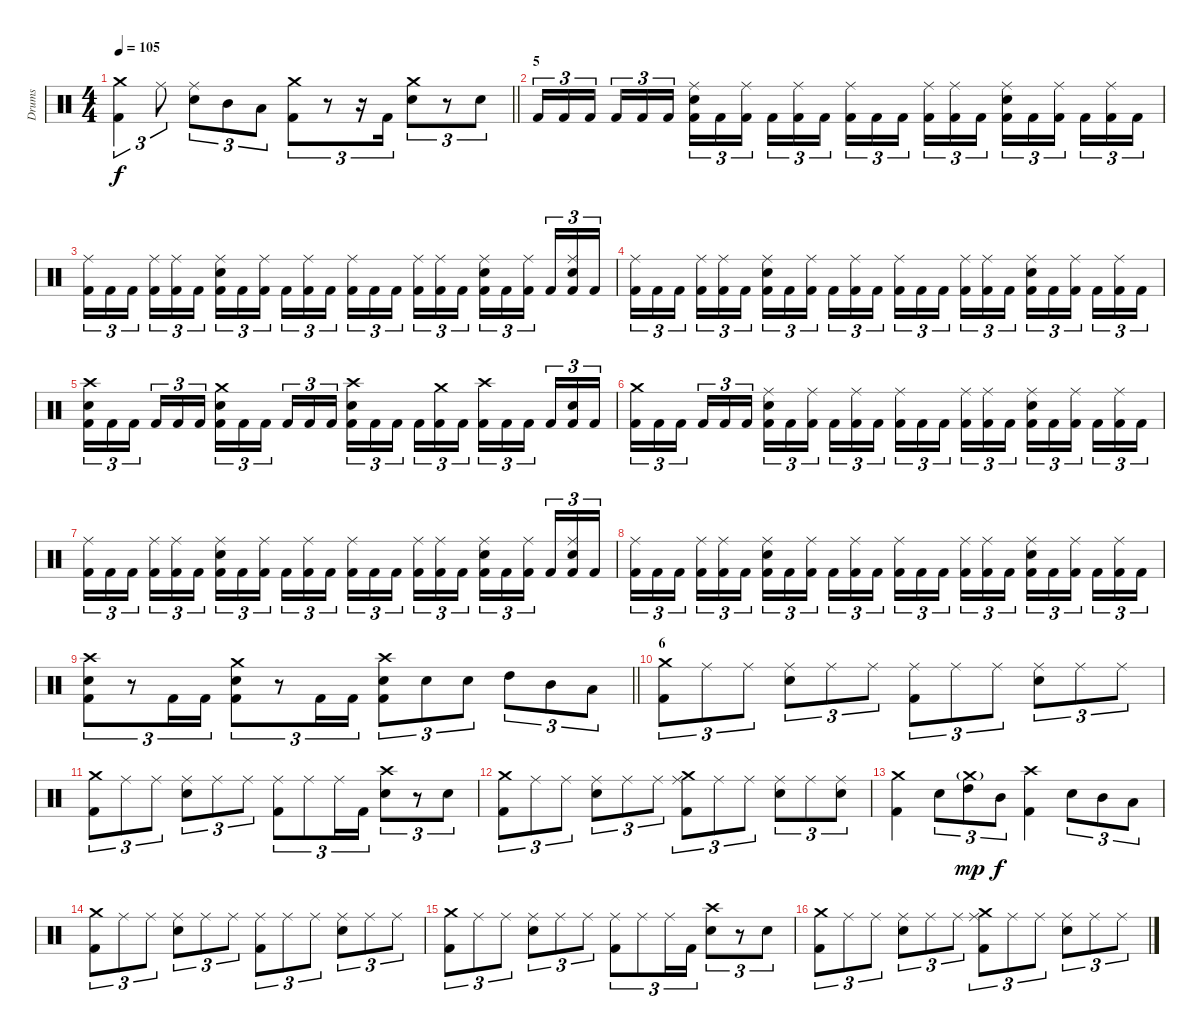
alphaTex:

\track ("Drums" "Drums") {instrument percussion}
\staff {score}
\articulation defaults
\ts (4 4)
\tempo 105
\clef neutral
\barLineRight lightlight
\ks c
("Crash medium (hit)" "Kick (hit) 2").4{tu (3 2) dy f} "Ride (middle)".8{tu (3 2)} ("Ride (middle)" "Electric Snare (hit)").8{tu (3 2)} "Mid Tom (hit)".8{tu (3 2)} "Low Tom (hit)".8{tu (3 2)} ("Crash medium (hit)" "Kick (hit) 2").8{tu (3 2)} r.8{tu (3 2)} r.16{tu (3 2)} "Kick (hit) 2".16{tu (3 2)} ("Crash medium (hit)" "Electric Snare (hit)").8{tu (3 2)} r.8{tu (3 2)} "Electric Snare (hit)".8{tu (3 2)} |
\section ("" "5")
"Kick (hit) 2".16{tu (3 2)} "Kick (hit) 2".16{tu (3 2)} "Kick (hit) 2".16{tu (3 2) beam splitsecondary} "Kick (hit) 2".16{tu (3 2)} "Kick (hit) 2".16{tu (3 2)} "Kick (hit) 2".16{tu (3 2)} ("Ride (middle)" "Electric Snare (hit)" "Kick (hit) 2").16{tu (3 2)} "Kick (hit) 2".16{tu (3 2)} ("Ride (middle)" "Kick (hit) 2").16{tu (3 2) beam splitsecondary} "Kick (hit) 2".16{tu (3 2)} ("Ride (middle)" "Kick (hit) 2").16{tu (3 2)} "Kick (hit) 2".16{tu (3 2)} ("Ride (middle)" "Kick (hit) 2").16{tu (3 2)} "Kick (hit) 2".16{tu (3 2)} "Kick (hit) 2".16{tu (3 2) beam splitsecondary} ("Ride (middle)" "Kick (hit) 2").16{tu (3 2)} ("Ride (middle)" "Kick (hit) 2").16{tu (3 2)} "Kick (hit) 2".16{tu (3 2)} ("Ride (middle)" "Electric Snare (hit)" "Kick (hit) 2").16{tu (3 2)} "Kick (hit) 2".16{tu (3 2)} ("Ride (middle)" "Kick (hit) 2").16{tu (3 2) beam splitsecondary} "Kick (hit) 2".16{tu (3 2)} ("Ride (middle)" "Kick (hit) 2").16{tu (3 2)} "Kick (hit) 2".16{tu (3 2)} |
("Ride (middle)" "Kick (hit) 2").16{tu (3 2)} "Kick (hit) 2".16{tu (3 2)} "Kick (hit) 2".16{tu (3 2) beam splitsecondary} ("Ride (middle)" "Kick (hit) 2").16{tu (3 2)} ("Ride (middle)" "Kick (hit) 2").16{tu (3 2)} "Kick (hit) 2".16{tu (3 2)} ("Ride (middle)" "Electric Snare (hit)" "Kick (hit) 2").16{tu (3 2)} "Kick (hit) 2".16{tu (3 2)} ("Ride (middle)" "Kick (hit) 2").16{tu (3 2) beam splitsecondary} "Kick (hit) 2".16{tu (3 2)} ("Ride (middle)" "Kick (hit) 2").16{tu (3 2)} "Kick (hit) 2".16{tu (3 2)} ("Ride (middle)" "Kick (hit) 2").16{tu (3 2)} "Kick (hit) 2".16{tu (3 2)} "Kick (hit) 2".16{tu (3 2) beam splitsecondary} ("Ride (middle)" "Kick (hit) 2").16{tu (3 2)} ("Ride (middle)" "Kick (hit) 2").16{tu (3 2)} "Kick (hit) 2".16{tu (3 2)} ("Ride (middle)" "Electric Snare (hit)" "Kick (hit) 2").16{tu (3 2)} "Kick (hit) 2".16{tu (3 2)} ("Ride (middle)" "Kick (hit) 2").16{tu (3 2) beam splitsecondary} "Kick (hit) 2".16{tu (3 2)} ("Ride (middle)" "Electric Snare (hit)" "Kick (hit) 2").16{tu (3 2)} "Kick (hit) 2".16{tu (3 2)} |
("Ride (middle)" "Kick (hit) 2").16{tu (3 2)} "Kick (hit) 2".16{tu (3 2)} "Kick (hit) 2".16{tu (3 2) beam splitsecondary} ("Ride (middle)" "Kick (hit) 2").16{tu (3 2)} ("Ride (middle)" "Kick (hit) 2").16{tu (3 2)} "Kick (hit) 2".16{tu (3 2)} ("Ride (middle)" "Electric Snare (hit)" "Kick (hit) 2").16{tu (3 2)} "Kick (hit) 2".16{tu (3 2)} ("Ride (middle)" "Kick (hit) 2").16{tu (3 2) beam splitsecondary} "Kick (hit) 2".16{tu (3 2)} ("Ride (middle)" "Kick (hit) 2").16{tu (3 2)} "Kick (hit) 2".16{tu (3 2)} ("Ride (middle)" "Kick (hit) 2").16{tu (3 2)} "Kick (hit) 2".16{tu (3 2)} "Kick (hit) 2".16{tu (3 2) beam splitsecondary} ("Ride (middle)" "Kick (hit) 2").16{tu (3 2)} ("Ride (middle)" "Kick (hit) 2").16{tu (3 2)} "Kick (hit) 2".16{tu (3 2)} ("Ride (middle)" "Electric Snare (hit)" "Kick (hit) 2").16{tu (3 2)} "Kick (hit) 2".16{tu (3 2)} ("Ride (middle)" "Kick (hit) 2").16{tu (3 2) beam splitsecondary} "Kick (hit) 2".16{tu (3 2)} ("Ride (middle)" "Kick (hit) 2").16{tu (3 2)} "Kick (hit) 2".16{tu (3 2)} |
("Crash high (hit)" "Electric Snare (hit)" "Kick (hit) 2").16{tu (3 2)} "Kick (hit) 2".16{tu (3 2)} "Kick (hit) 2".16{tu (3 2) beam splitsecondary} "Kick (hit) 2".16{tu (3 2)} "Kick (hit) 2".16{tu (3 2)} "Kick (hit) 2".16{tu (3 2)} ("Crash medium (hit)" "Electric Snare (hit)" "Kick (hit) 2").16{tu (3 2)} "Kick (hit) 2".16{tu (3 2)} "Kick (hit) 2".16{tu (3 2) beam splitsecondary} "Kick (hit) 2".16{tu (3 2)} "Kick (hit) 2".16{tu (3 2)} "Kick (hit) 2".16{tu (3 2)} ("Crash high (hit)" "Electric Snare (hit)" "Kick (hit) 2").16{tu (3 2)} "Kick (hit) 2".16{tu (3 2)} "Kick (hit) 2".16{tu (3 2) beam splitsecondary} "Kick (hit) 2".16{tu (3 2)} ("Crash medium (hit)" "Kick (hit) 2").16{tu (3 2)} "Kick (hit) 2".16{tu (3 2)} ("Crash high (hit)" "Kick (hit) 2").16{tu (3 2)} "Kick (hit) 2".16{tu (3 2)} "Kick (hit) 2".16{tu (3 2) beam splitsecondary} "Kick (hit) 2".16{tu (3 2)} ("Electric Snare (hit)" "Kick (hit) 2").16{tu (3 2)} "Kick (hit) 2".16{tu (3 2)} |
("Crash medium (hit)" "Kick (hit) 2").16{tu (3 2)} "Kick (hit) 2".16{tu (3 2)} "Kick (hit) 2".16{tu (3 2) beam splitsecondary} "Kick (hit) 2".16{tu (3 2)} "Kick (hit) 2".16{tu (3 2)} "Kick (hit) 2".16{tu (3 2)} ("Ride (middle)" "Electric Snare (hit)" "Kick (hit) 2").16{tu (3 2)} "Kick (hit) 2".16{tu (3 2)} ("Ride (middle)" "Kick (hit) 2").16{tu (3 2) beam splitsecondary} "Kick (hit) 2".16{tu (3 2)} ("Ride (middle)" "Kick (hit) 2").16{tu (3 2)} "Kick (hit) 2".16{tu (3 2)} ("Ride (middle)" "Kick (hit) 2").16{tu (3 2)} "Kick (hit) 2".16{tu (3 2)} "Kick (hit) 2".16{tu (3 2) beam splitsecondary} ("Ride (middle)" "Kick (hit) 2").16{tu (3 2)} ("Ride (middle)" "Kick (hit) 2").16{tu (3 2)} "Kick (hit) 2".16{tu (3 2)} ("Ride (middle)" "Electric Snare (hit)" "Kick (hit) 2").16{tu (3 2)} "Kick (hit) 2".16{tu (3 2)} ("Ride (middle)" "Kick (hit) 2").16{tu (3 2) beam splitsecondary} "Kick (hit) 2".16{tu (3 2)} ("Ride (middle)" "Kick (hit) 2").16{tu (3 2)} "Kick (hit) 2".16{tu (3 2)} |
("Ride (middle)" "Kick (hit) 2").16{tu (3 2)} "Kick (hit) 2".16{tu (3 2)} "Kick (hit) 2".16{tu (3 2) beam splitsecondary} ("Ride (middle)" "Kick (hit) 2").16{tu (3 2)} ("Ride (middle)" "Kick (hit) 2").16{tu (3 2)} "Kick (hit) 2".16{tu (3 2)} ("Ride (middle)" "Electric Snare (hit)" "Kick (hit) 2").16{tu (3 2)} "Kick (hit) 2".16{tu (3 2)} ("Ride (middle)" "Kick (hit) 2").16{tu (3 2) beam splitsecondary} "Kick (hit) 2".16{tu (3 2)} ("Ride (middle)" "Kick (hit) 2").16{tu (3 2)} "Kick (hit) 2".16{tu (3 2)} ("Ride (middle)" "Kick (hit) 2").16{tu (3 2)} "Kick (hit) 2".16{tu (3 2)} "Kick (hit) 2".16{tu (3 2) beam splitsecondary} ("Ride (middle)" "Kick (hit) 2").16{tu (3 2)} ("Ride (middle)" "Kick (hit) 2").16{tu (3 2)} "Kick (hit) 2".16{tu (3 2)} ("Ride (middle)" "Electric Snare (hit)" "Kick (hit) 2").16{tu (3 2)} "Kick (hit) 2".16{tu (3 2)} ("Ride (middle)" "Kick (hit) 2").16{tu (3 2) beam splitsecondary} "Kick (hit) 2".16{tu (3 2)} ("Ride (middle)" "Electric Snare (hit)" "Kick (hit) 2").16{tu (3 2)} "Kick (hit) 2".16{tu (3 2)} |
("Ride (middle)" "Kick (hit) 2").16{tu (3 2)} "Kick (hit) 2".16{tu (3 2)} "Kick (hit) 2".16{tu (3 2) beam splitsecondary} ("Ride (middle)" "Kick (hit) 2").16{tu (3 2)} ("Ride (middle)" "Kick (hit) 2").16{tu (3 2)} "Kick (hit) 2".16{tu (3 2)} ("Ride (middle)" "Electric Snare (hit)" "Kick (hit) 2").16{tu (3 2)} "Kick (hit) 2".16{tu (3 2)} ("Ride (middle)" "Kick (hit) 2").16{tu (3 2) beam splitsecondary} "Kick (hit) 2".16{tu (3 2)} ("Ride (middle)" "Kick (hit) 2").16{tu (3 2)} "Kick (hit) 2".16{tu (3 2)} ("Ride (middle)" "Kick (hit) 2").16{tu (3 2)} "Kick (hit) 2".16{tu (3 2)} "Kick (hit) 2".16{tu (3 2) beam splitsecondary} ("Ride (middle)" "Kick (hit) 2").16{tu (3 2)} ("Ride (middle)" "Kick (hit) 2").16{tu (3 2)} "Kick (hit) 2".16{tu (3 2)} ("Ride (middle)" "Electric Snare (hit)" "Kick (hit) 2").16{tu (3 2)} "Kick (hit) 2".16{tu (3 2)} ("Ride (middle)" "Kick (hit) 2").16{tu (3 2) beam splitsecondary} "Kick (hit) 2".16{tu (3 2)} ("Ride (middle)" "Kick (hit) 2").16{tu (3 2)} "Kick (hit) 2".16{tu (3 2)} |
\barLineRight lightlight
("Crash high (hit)" "Electric Snare (hit)" "Kick (hit) 2").8{tu (3 2)} r.8{tu (3 2)} "Kick (hit) 2".16{tu (3 2)} "Kick (hit) 2".16{tu (3 2)} ("Crash medium (hit)" "Electric Snare (hit)" "Kick (hit) 2").8{tu (3 2)} r.8{tu (3 2)} "Kick (hit) 2".16{tu (3 2)} "Kick (hit) 2".16{tu (3 2)} ("Crash high (hit)" "Electric Snare (hit)" "Kick (hit) 2").8{tu (3 2)} "Electric Snare (hit)".8{tu (3 2)} "Electric Snare (hit)".8{tu (3 2)} "High Tom (hit)".8{tu (3 2)} "Mid Tom (hit)".8{tu (3 2)} "Low Tom (hit)".8{tu (3 2)} |
\section ("" "6")
("Crash medium (hit)" "Kick (hit) 2").8{tu (3 2)} "Ride (middle)".8{tu (3 2)} "Ride (middle)".8{tu (3 2)} ("Ride (middle)" "Electric Snare (hit)").8{tu (3 2)} "Ride (middle)".8{tu (3 2)} "Ride (middle)".8{tu (3 2)} ("Ride (middle)" "Kick (hit) 2").8{tu (3 2)} "Ride (middle)".8{tu (3 2)} "Ride (middle)".8{tu (3 2)} ("Ride (middle)" "Electric Snare (hit)").8{tu (3 2)} "Ride (middle)".8{tu (3 2)} "Ride (middle)".8{tu (3 2)} |
("Crash medium (hit)" "Kick (hit) 2").8{tu (3 2)} "Ride (middle)".8{tu (3 2)} "Ride (middle)".8{tu (3 2)} ("Ride (middle)" "Electric Snare (hit)").8{tu (3 2)} "Ride (middle)".8{tu (3 2)} "Ride (middle)".8{tu (3 2)} ("Ride (middle)" "Kick (hit) 2").8{tu (3 2)} "Ride (middle)".8{tu (3 2)} "Ride (middle)".16{tu (3 2)} "Kick (hit) 2".16{tu (3 2)} ("Crash high (hit)" "Electric Snare (hit)").8{tu (3 2)} r.8{tu (3 2)} "Electric Snare (hit)".8{tu (3 2)} |
("Crash medium (hit)" "Kick (hit) 2").8{tu (3 2)} "Ride (middle)".8{tu (3 2)} "Ride (middle)".8{tu (3 2)} ("Ride (middle)" "Electric Snare (hit)").8{tu (3 2)} "Ride (middle)".8{tu (3 2)} "Ride (middle)".8{tu (3 2)} ("Crash medium (hit)" "Ride (middle)" "Kick (hit) 2").8{tu (3 2)} "Ride (middle)".8{tu (3 2)} "Ride (middle)".8{tu (3 2)} ("Ride (middle)" "Electric Snare (hit)").8{tu (3 2)} "Ride (middle)".8{tu (3 2)} ("Ride (middle)" "Electric Snare (hit)").8{tu (3 2)} |
("Crash medium (hit)" "Kick (hit) 2").4 "Electric Snare (hit)".8{tu (3 2)} ("Crash medium (hit)"{g} "High Tom (hit)").8{tu (3 2) dy mp} "Mid Tom (hit)".8{tu (3 2) dy f} ("Crash high (hit)" "Kick (hit) 2").4 "Electric Snare (hit)".8{tu (3 2)} "Mid Tom (hit)".8{tu (3 2)} "Low Tom (hit)".8{tu (3 2)} |
("Crash medium (hit)" "Kick (hit) 2").8{tu (3 2)} "Ride (middle)".8{tu (3 2)} "Ride (middle)".8{tu (3 2)} ("Ride (middle)" "Electric Snare (hit)").8{tu (3 2)} "Ride (middle)".8{tu (3 2)} "Ride (middle)".8{tu (3 2)} ("Ride (middle)" "Kick (hit) 2").8{tu (3 2)} "Ride (middle)".8{tu (3 2)} "Ride (middle)".8{tu (3 2)} ("Ride (middle)" "Electric Snare (hit)").8{tu (3 2)} "Ride (middle)".8{tu (3 2)} "Ride (middle)".8{tu (3 2)} |
("Crash medium (hit)" "Kick (hit) 2").8{tu (3 2)} "Ride (middle)".8{tu (3 2)} "Ride (middle)".8{tu (3 2)} ("Ride (middle)" "Electric Snare (hit)").8{tu (3 2)} "Ride (middle)".8{tu (3 2)} "Ride (middle)".8{tu (3 2)} ("Ride (middle)" "Kick (hit) 2").8{tu (3 2)} "Ride (middle)".8{tu (3 2)} "Ride (middle)".16{tu (3 2)} "Kick (hit) 2".16{tu (3 2)} ("Crash high (hit)" "Electric Snare (hit)").8{tu (3 2)} r.8{tu (3 2)} "Electric Snare (hit)".8{tu (3 2)} |
("Crash medium (hit)" "Kick (hit) 2").8{tu (3 2)} "Ride (middle)".8{tu (3 2)} "Ride (middle)".8{tu (3 2)} ("Ride (middle)" "Electric Snare (hit)").8{tu (3 2)} "Ride (middle)".8{tu (3 2)} "Ride (middle)".8{tu (3 2)} ("Crash medium (hit)" "Ride (middle)" "Kick (hit) 2").8{tu (3 2)} "Ride (middle)".8{tu (3 2)} "Ride (middle)".8{tu (3 2)} ("Ride (middle)" "Electric Snare (hit)").8{tu (3 2)} "Ride (middle)".8{tu (3 2)} "Ride (middle)".8{tu (3 2)}
